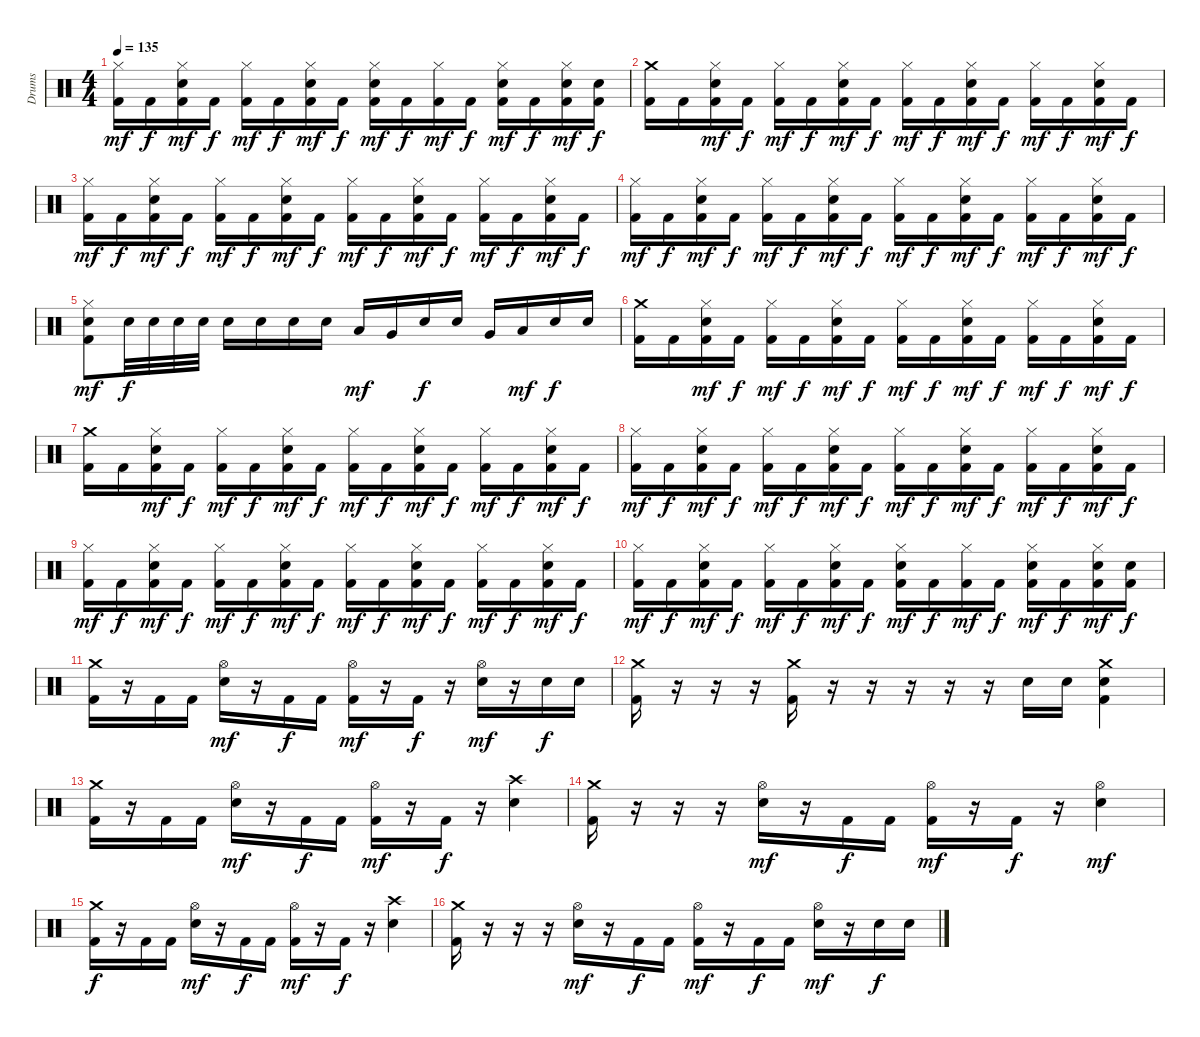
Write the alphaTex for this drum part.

\track ("Drums" "Drums") {instrument percussion}
\staff {score}
\articulation defaults
\ts (4 4)
\tempo 135
\clef neutral
\ks c
("Hi-Hat (closed)" "Kick (hit) 2").16{dy mf} "Kick (hit) 2".16{dy f} ("Hi-Hat (closed)" "Electric Snare (hit)" "Kick (hit) 2").16{dy mf} "Kick (hit) 2".16{dy f} ("Hi-Hat (closed)" "Kick (hit) 2").16{dy mf} "Kick (hit) 2".16{dy f} ("Hi-Hat (closed)" "Electric Snare (hit)" "Kick (hit) 2").16{dy mf} "Kick (hit) 2".16{dy f} ("Hi-Hat (closed)" "Electric Snare (hit)" "Kick (hit) 2").16{dy mf} "Kick (hit) 2".16{dy f} ("Hi-Hat (closed)" "Kick (hit) 2").16{dy mf} "Kick (hit) 2".16{dy f} ("Hi-Hat (closed)" "Electric Snare (hit)" "Kick (hit) 2").16{dy mf} "Kick (hit) 2".16{dy f} ("Hi-Hat (closed)" "Electric Snare (hit)" "Kick (hit) 2").16{dy mf} ("Electric Snare (hit)" "Kick (hit) 2").16{dy f} |
("Crash medium (hit)" "Kick (hit) 2").16 "Kick (hit) 2".16 ("Hi-Hat (closed)" "Electric Snare (hit)" "Kick (hit) 2").16{dy mf} "Kick (hit) 2".16{dy f} ("Hi-Hat (closed)" "Kick (hit) 2").16{dy mf} "Kick (hit) 2".16{dy f} ("Hi-Hat (closed)" "Electric Snare (hit)" "Kick (hit) 2").16{dy mf} "Kick (hit) 2".16{dy f} ("Hi-Hat (closed)" "Kick (hit) 2").16{dy mf} "Kick (hit) 2".16{dy f} ("Hi-Hat (closed)" "Electric Snare (hit)" "Kick (hit) 2").16{dy mf} "Kick (hit) 2".16{dy f} ("Hi-Hat (closed)" "Kick (hit) 2").16{dy mf} "Kick (hit) 2".16{dy f} ("Hi-Hat (closed)" "Electric Snare (hit)" "Kick (hit) 2").16{dy mf} "Kick (hit) 2".16{dy f} |
("Hi-Hat (closed)" "Kick (hit) 2").16{dy mf} "Kick (hit) 2".16{dy f} ("Hi-Hat (closed)" "Electric Snare (hit)" "Kick (hit) 2").16{dy mf} "Kick (hit) 2".16{dy f} ("Hi-Hat (closed)" "Kick (hit) 2").16{dy mf} "Kick (hit) 2".16{dy f} ("Hi-Hat (closed)" "Electric Snare (hit)" "Kick (hit) 2").16{dy mf} "Kick (hit) 2".16{dy f} ("Hi-Hat (closed)" "Kick (hit) 2").16{dy mf} "Kick (hit) 2".16{dy f} ("Hi-Hat (closed)" "Electric Snare (hit)" "Kick (hit) 2").16{dy mf} "Kick (hit) 2".16{dy f} ("Hi-Hat (closed)" "Kick (hit) 2").16{dy mf} "Kick (hit) 2".16{dy f} ("Hi-Hat (closed)" "Electric Snare (hit)" "Kick (hit) 2").16{dy mf} "Kick (hit) 2".16{dy f} |
("Hi-Hat (closed)" "Kick (hit) 2").16{dy mf} "Kick (hit) 2".16{dy f} ("Hi-Hat (closed)" "Electric Snare (hit)" "Kick (hit) 2").16{dy mf} "Kick (hit) 2".16{dy f} ("Hi-Hat (closed)" "Kick (hit) 2").16{dy mf} "Kick (hit) 2".16{dy f} ("Hi-Hat (closed)" "Electric Snare (hit)" "Kick (hit) 2").16{dy mf} "Kick (hit) 2".16{dy f} ("Hi-Hat (closed)" "Kick (hit) 2").16{dy mf} "Kick (hit) 2".16{dy f} ("Hi-Hat (closed)" "Electric Snare (hit)" "Kick (hit) 2").16{dy mf} "Kick (hit) 2".16{dy f} ("Hi-Hat (closed)" "Kick (hit) 2").16{dy mf} "Kick (hit) 2".16{dy f} ("Hi-Hat (closed)" "Electric Snare (hit)" "Kick (hit) 2").16{dy mf} "Kick (hit) 2".16{dy f} |
("Hi-Hat (closed)" "Electric Snare (hit)" "Kick (hit) 2").8{dy mf} "Electric Snare (hit)".32{dy f} "Electric Snare (hit)".32 "Electric Snare (hit)".32 "Electric Snare (hit)".32 "Electric Snare (hit)".16 "Electric Snare (hit)".16 "Electric Snare (hit)".16 "Electric Snare (hit)".16 "Low Tom (hit)".16{dy mf} "Very Low Tom (hit)".16 "Electric Snare (hit)".16{dy f} "Electric Snare (hit)".16 "Very Low Tom (hit)".16 "Low Floor Tom (hit)".16{dy mf} "Electric Snare (hit)".16{dy f} "Electric Snare (hit)".16 |
("Crash medium (hit)" "Kick (hit) 2").16 "Kick (hit) 2".16 ("Hi-Hat (closed)" "Electric Snare (hit)" "Kick (hit) 2").16{dy mf} "Kick (hit) 2".16{dy f} ("Hi-Hat (closed)" "Kick (hit) 2").16{dy mf} "Kick (hit) 2".16{dy f} ("Hi-Hat (closed)" "Electric Snare (hit)" "Kick (hit) 2").16{dy mf} "Kick (hit) 2".16{dy f} ("Hi-Hat (closed)" "Kick (hit) 2").16{dy mf} "Kick (hit) 2".16{dy f} ("Hi-Hat (closed)" "Electric Snare (hit)" "Kick (hit) 2").16{dy mf} "Kick (hit) 2".16{dy f} ("Hi-Hat (closed)" "Kick (hit) 2").16{dy mf} "Kick (hit) 2".16{dy f} ("Hi-Hat (closed)" "Electric Snare (hit)" "Kick (hit) 2").16{dy mf} "Kick (hit) 2".16{dy f} |
("Crash medium (hit)" "Kick (hit) 2").16 "Kick (hit) 2".16 ("Hi-Hat (closed)" "Electric Snare (hit)" "Kick (hit) 2").16{dy mf} "Kick (hit) 2".16{dy f} ("Hi-Hat (closed)" "Kick (hit) 2").16{dy mf} "Kick (hit) 2".16{dy f} ("Hi-Hat (closed)" "Electric Snare (hit)" "Kick (hit) 2").16{dy mf} "Kick (hit) 2".16{dy f} ("Hi-Hat (closed)" "Kick (hit) 2").16{dy mf} "Kick (hit) 2".16{dy f} ("Hi-Hat (closed)" "Electric Snare (hit)" "Kick (hit) 2").16{dy mf} "Kick (hit) 2".16{dy f} ("Hi-Hat (closed)" "Kick (hit) 2").16{dy mf} "Kick (hit) 2".16{dy f} ("Hi-Hat (closed)" "Electric Snare (hit)" "Kick (hit) 2").16{dy mf} "Kick (hit) 2".16{dy f} |
("Hi-Hat (closed)" "Kick (hit) 2").16{dy mf} "Kick (hit) 2".16{dy f} ("Hi-Hat (closed)" "Electric Snare (hit)" "Kick (hit) 2").16{dy mf} "Kick (hit) 2".16{dy f} ("Hi-Hat (closed)" "Kick (hit) 2").16{dy mf} "Kick (hit) 2".16{dy f} ("Hi-Hat (closed)" "Electric Snare (hit)" "Kick (hit) 2").16{dy mf} "Kick (hit) 2".16{dy f} ("Hi-Hat (closed)" "Kick (hit) 2").16{dy mf} "Kick (hit) 2".16{dy f} ("Hi-Hat (closed)" "Electric Snare (hit)" "Kick (hit) 2").16{dy mf} "Kick (hit) 2".16{dy f} ("Hi-Hat (closed)" "Kick (hit) 2").16{dy mf} "Kick (hit) 2".16{dy f} ("Hi-Hat (closed)" "Electric Snare (hit)" "Kick (hit) 2").16{dy mf} "Kick (hit) 2".16{dy f} |
("Hi-Hat (closed)" "Kick (hit) 2").16{dy mf} "Kick (hit) 2".16{dy f} ("Hi-Hat (closed)" "Electric Snare (hit)" "Kick (hit) 2").16{dy mf} "Kick (hit) 2".16{dy f} ("Hi-Hat (closed)" "Kick (hit) 2").16{dy mf} "Kick (hit) 2".16{dy f} ("Hi-Hat (closed)" "Electric Snare (hit)" "Kick (hit) 2").16{dy mf} "Kick (hit) 2".16{dy f} ("Hi-Hat (closed)" "Kick (hit) 2").16{dy mf} "Kick (hit) 2".16{dy f} ("Hi-Hat (closed)" "Electric Snare (hit)" "Kick (hit) 2").16{dy mf} "Kick (hit) 2".16{dy f} ("Hi-Hat (closed)" "Kick (hit) 2").16{dy mf} "Kick (hit) 2".16{dy f} ("Hi-Hat (closed)" "Electric Snare (hit)" "Kick (hit) 2").16{dy mf} "Kick (hit) 2".16{dy f} |
("Hi-Hat (closed)" "Kick (hit) 2").16{dy mf} "Kick (hit) 2".16{dy f} ("Hi-Hat (closed)" "Electric Snare (hit)" "Kick (hit) 2").16{dy mf} "Kick (hit) 2".16{dy f} ("Hi-Hat (closed)" "Kick (hit) 2").16{dy mf} "Kick (hit) 2".16{dy f} ("Hi-Hat (closed)" "Electric Snare (hit)" "Kick (hit) 2").16{dy mf} "Kick (hit) 2".16{dy f} ("Hi-Hat (closed)" "Electric Snare (hit)" "Kick (hit) 2").16{dy mf} "Kick (hit) 2".16{dy f} ("Hi-Hat (closed)" "Kick (hit) 2").16{dy mf} "Kick (hit) 2".16{dy f} ("Hi-Hat (closed)" "Electric Snare (hit)" "Kick (hit) 2").16{dy mf} "Kick (hit) 2".16{dy f} ("Hi-Hat (closed)" "Electric Snare (hit)" "Kick (hit) 2").16{dy mf} ("Electric Snare (hit)" "Kick (hit) 2").16{dy f} |
("Crash medium (hit)" "Kick (hit) 2").16 r.16 "Kick (hit) 2".16 "Kick (hit) 2".16 ("Hi-Hat (open)" "Electric Snare (hit)").16{dy mf} r.16 "Kick (hit) 2".16{dy f} "Kick (hit) 2".16 ("Hi-Hat (open)" "Kick (hit) 2").16{dy mf} r.16 "Kick (hit) 2".16{dy f} r.16 ("Hi-Hat (open)" "Electric Snare (hit)").16{dy mf} r.16 "Electric Snare (hit)".16{dy f} "Electric Snare (hit)".16 |
("Crash medium (hit)" "Kick (hit) 2").16 r.16 r.16 r.16 ("Crash medium (hit)" "Kick (hit) 2").16 r.16 r.16 r.16 r.16 r.16 "Electric Snare (hit)".16 "Electric Snare (hit)".16 ("Crash medium (hit)" "Electric Snare (hit)" "Kick (hit) 2").4 |
("Crash medium (hit)" "Kick (hit) 2").16 r.16 "Kick (hit) 2".16 "Kick (hit) 2".16 ("Hi-Hat (open)" "Electric Snare (hit)").16{dy mf} r.16 "Kick (hit) 2".16{dy f} "Kick (hit) 2".16 ("Hi-Hat (open)" "Kick (hit) 2").16{dy mf} r.16 "Kick (hit) 2".16{dy f} r.16 ("Crash high (hit)" "Electric Snare (hit)").4 |
("Crash medium (hit)" "Kick (hit) 2").16 r.16 r.16 r.16 ("Hi-Hat (open)" "Electric Snare (hit)").16{dy mf} r.16 "Kick (hit) 2".16{dy f} "Kick (hit) 2".16 ("Hi-Hat (open)" "Kick (hit) 2").16{dy mf} r.16 "Kick (hit) 2".16{dy f} r.16 ("Hi-Hat (open)" "Electric Snare (hit)").4{dy mf} |
("Crash medium (hit)" "Kick (hit) 2").16{dy f} r.16 "Kick (hit) 2".16 "Kick (hit) 2".16 ("Hi-Hat (open)" "Electric Snare (hit)").16{dy mf} r.16 "Kick (hit) 2".16{dy f} "Kick (hit) 2".16 ("Hi-Hat (open)" "Kick (hit) 2").16{dy mf} r.16 "Kick (hit) 2".16{dy f} r.16 ("Crash high (hit)" "Electric Snare (hit)").4 |
("Crash medium (hit)" "Kick (hit) 2").16 r.16 r.16 r.16 ("Hi-Hat (open)" "Electric Snare (hit)").16{dy mf} r.16 "Kick (hit) 2".16{dy f} "Kick (hit) 2".16 ("Hi-Hat (open)" "Kick (hit) 2").16{dy mf} r.16 "Kick (hit) 2".16{dy f} "Kick (hit) 2".16 ("Hi-Hat (open)" "Electric Snare (hit)").16{dy mf} r.16 "Electric Snare (hit)".16{dy f} "Electric Snare (hit)".16
